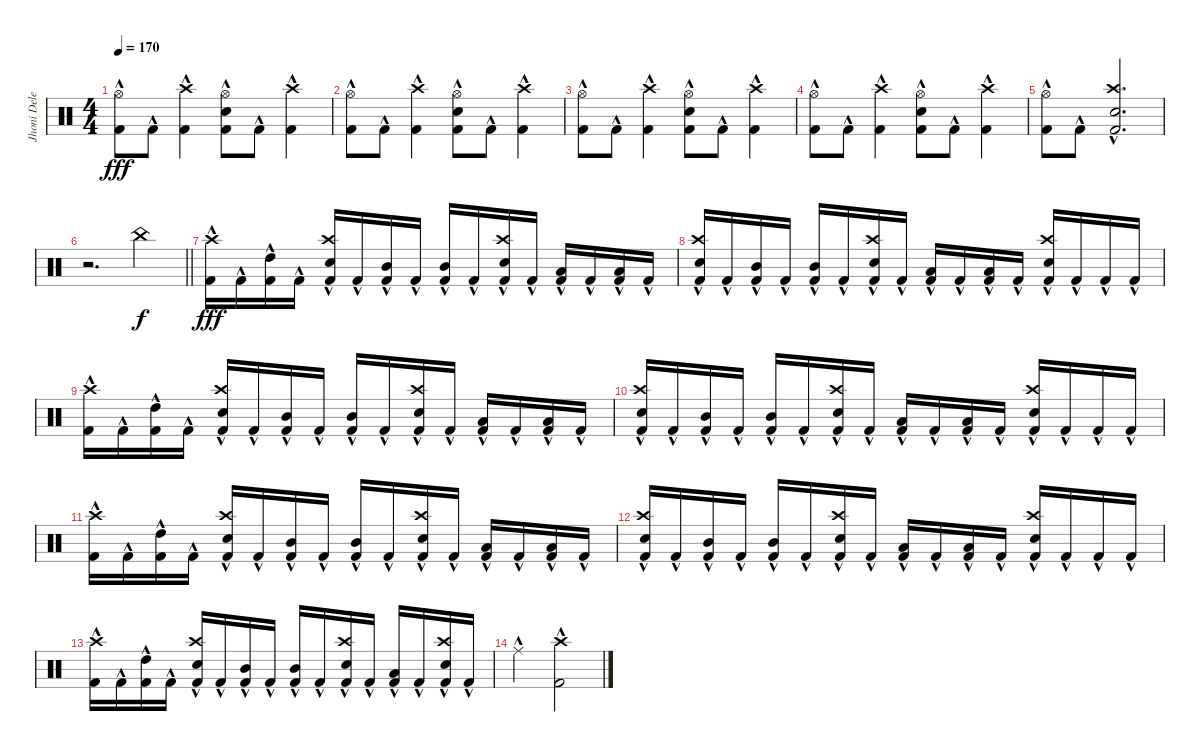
\track ("Jhoni Delenger" "Jhoni Dele") {instrument percussion}
\staff {score}
\articulation defaults
\ts (4 4)
\tempo 170
\clef neutral
\ks c
("Hi-Hat (open)" "Kick (hit) 2"{hac}).8{dy fff} "Kick (hit) 2"{hac}.8 ("Kick (hit) 2"{hac} "Crash high (hit)").4 ("Hi-Hat (open)" "Kick (hit) 2"{hac} "Snare (hit) 2").8 "Kick (hit) 2"{hac}.8 ("Kick (hit) 2"{hac} "Crash high (hit)").4 |
("Hi-Hat (open)" "Kick (hit) 2"{hac}).8 "Kick (hit) 2"{hac}.8 ("Kick (hit) 2"{hac} "Crash high (hit)").4 ("Hi-Hat (open)" "Kick (hit) 2"{hac} "Snare (hit) 2").8 "Kick (hit) 2"{hac}.8 ("Kick (hit) 2"{hac} "Crash high (hit)").4 |
("Hi-Hat (open)" "Kick (hit) 2"{hac}).8 "Kick (hit) 2"{hac}.8 ("Kick (hit) 2"{hac} "Crash high (hit)").4 ("Hi-Hat (open)" "Kick (hit) 2"{hac} "Snare (hit) 2").8 "Kick (hit) 2"{hac}.8 ("Kick (hit) 2"{hac} "Crash high (hit)").4 |
("Hi-Hat (open)" "Kick (hit) 2"{hac}).8 "Kick (hit) 2"{hac}.8 ("Kick (hit) 2"{hac} "Crash high (hit)").4 ("Hi-Hat (open)" "Kick (hit) 2"{hac} "Snare (hit) 2").8 "Kick (hit) 2"{hac}.8 ("Kick (hit) 2"{hac} "Crash high (hit)").4 |
("Hi-Hat (open)" "Kick (hit) 2"{hac}).8 "Kick (hit) 2"{hac}.8 ("Kick (hit) 2"{hac} "Crash high (hit)" "Snare (hit) 2").2{d} |
\barLineRight lightlight
r.2{d} "China (hit)".4{dy f} |
("Kick (hit) 2"{hac} "Crash high (hit)"{hac}).16{dy fff} "Kick (hit) 2"{hac}.16 ("Kick (hit) 2"{hac} "High Tom (hit)"{hac}).16 "Kick (hit) 2"{hac}.16 ("Snare (hit) 2"{hac} "Crash high (hit)"{hac} "Kick (hit) 2"{hac}).16 "Kick (hit) 2"{hac}.16 ("Mid Tom (hit)"{hac} "Kick (hit) 2"{hac}).16 "Kick (hit) 2"{hac}.16 ("Kick (hit) 2"{hac} "Mid Tom (hit)"{hac}).16 "Kick (hit) 2"{hac}.16 ("Snare (hit) 2"{hac} "Crash high (hit)"{hac} "Kick (hit) 2"{hac}).16 "Kick (hit) 2"{hac}.16 ("Low Tom (hit)"{hac} "Kick (hit) 2"{hac}).16 "Kick (hit) 2"{hac}.16 ("Kick (hit) 2"{hac} "Low Tom (hit)"{hac}).16 "Kick (hit) 2"{hac}.16 |
("Snare (hit) 2"{hac} "Crash high (hit)"{hac} "Kick (hit) 2"{hac}).16 "Kick (hit) 2"{hac}.16 ("Mid Tom (hit)"{hac} "Kick (hit) 2"{hac}).16 "Kick (hit) 2"{hac}.16 ("Kick (hit) 2"{hac} "Mid Tom (hit)"{hac}).16 "Kick (hit) 2"{hac}.16 ("Snare (hit) 2"{hac} "Crash high (hit)"{hac} "Kick (hit) 2"{hac}).16 "Kick (hit) 2"{hac}.16 ("Low Tom (hit)"{hac} "Kick (hit) 2"{hac}).16 "Kick (hit) 2"{hac}.16 ("Kick (hit) 2"{hac} "Low Tom (hit)"{hac}).16 "Kick (hit) 2"{hac}.16 ("Snare (hit) 2"{hac} "Crash high (hit)"{hac} "Kick (hit) 2"{hac}).16 "Kick (hit) 2"{hac}.16 "Kick (hit) 2"{hac}.16 "Kick (hit) 2"{hac}.16 |
("Kick (hit) 2"{hac} "Crash high (hit)"{hac}).16 "Kick (hit) 2"{hac}.16 ("Kick (hit) 2"{hac} "High Tom (hit)"{hac}).16 "Kick (hit) 2"{hac}.16 ("Snare (hit) 2"{hac} "Crash high (hit)"{hac} "Kick (hit) 2"{hac}).16 "Kick (hit) 2"{hac}.16 ("Mid Tom (hit)"{hac} "Kick (hit) 2"{hac}).16 "Kick (hit) 2"{hac}.16 ("Kick (hit) 2"{hac} "Mid Tom (hit)"{hac}).16 "Kick (hit) 2"{hac}.16 ("Snare (hit) 2"{hac} "Crash high (hit)"{hac} "Kick (hit) 2"{hac}).16 "Kick (hit) 2"{hac}.16 ("Low Tom (hit)"{hac} "Kick (hit) 2"{hac}).16 "Kick (hit) 2"{hac}.16 ("Kick (hit) 2"{hac} "Low Tom (hit)"{hac}).16 "Kick (hit) 2"{hac}.16 |
("Snare (hit) 2"{hac} "Crash high (hit)"{hac} "Kick (hit) 2"{hac}).16 "Kick (hit) 2"{hac}.16 ("Mid Tom (hit)"{hac} "Kick (hit) 2"{hac}).16 "Kick (hit) 2"{hac}.16 ("Kick (hit) 2"{hac} "Mid Tom (hit)"{hac}).16 "Kick (hit) 2"{hac}.16 ("Snare (hit) 2"{hac} "Crash high (hit)"{hac} "Kick (hit) 2"{hac}).16 "Kick (hit) 2"{hac}.16 ("Low Tom (hit)"{hac} "Kick (hit) 2"{hac}).16 "Kick (hit) 2"{hac}.16 ("Kick (hit) 2"{hac} "Low Tom (hit)"{hac}).16 "Kick (hit) 2"{hac}.16 ("Snare (hit) 2"{hac} "Crash high (hit)"{hac} "Kick (hit) 2"{hac}).16 "Kick (hit) 2"{hac}.16 "Kick (hit) 2"{hac}.16 "Kick (hit) 2"{hac}.16 |
("Kick (hit) 2"{hac} "Crash high (hit)"{hac}).16 "Kick (hit) 2"{hac}.16 ("Kick (hit) 2"{hac} "High Tom (hit)"{hac}).16 "Kick (hit) 2"{hac}.16 ("Snare (hit) 2"{hac} "Crash high (hit)"{hac} "Kick (hit) 2"{hac}).16 "Kick (hit) 2"{hac}.16 ("Mid Tom (hit)"{hac} "Kick (hit) 2"{hac}).16 "Kick (hit) 2"{hac}.16 ("Kick (hit) 2"{hac} "Mid Tom (hit)"{hac}).16 "Kick (hit) 2"{hac}.16 ("Snare (hit) 2"{hac} "Crash high (hit)"{hac} "Kick (hit) 2"{hac}).16 "Kick (hit) 2"{hac}.16 ("Low Tom (hit)"{hac} "Kick (hit) 2"{hac}).16 "Kick (hit) 2"{hac}.16 ("Kick (hit) 2"{hac} "Low Tom (hit)"{hac}).16 "Kick (hit) 2"{hac}.16 |
("Snare (hit) 2"{hac} "Crash high (hit)"{hac} "Kick (hit) 2"{hac}).16 "Kick (hit) 2"{hac}.16 ("Mid Tom (hit)"{hac} "Kick (hit) 2"{hac}).16 "Kick (hit) 2"{hac}.16 ("Kick (hit) 2"{hac} "Mid Tom (hit)"{hac}).16 "Kick (hit) 2"{hac}.16 ("Snare (hit) 2"{hac} "Crash high (hit)"{hac} "Kick (hit) 2"{hac}).16 "Kick (hit) 2"{hac}.16 ("Low Tom (hit)"{hac} "Kick (hit) 2"{hac}).16 "Kick (hit) 2"{hac}.16 ("Kick (hit) 2"{hac} "Low Tom (hit)"{hac}).16 "Kick (hit) 2"{hac}.16 ("Snare (hit) 2"{hac} "Crash high (hit)"{hac} "Kick (hit) 2"{hac}).16 "Kick (hit) 2"{hac}.16 "Kick (hit) 2"{hac}.16 "Kick (hit) 2"{hac}.16 |
("Kick (hit) 2"{hac} "Crash high (hit)"{hac}).16 "Kick (hit) 2"{hac}.16 ("Kick (hit) 2"{hac} "High Tom (hit)"{hac}).16 "Kick (hit) 2"{hac}.16 ("Snare (hit) 2"{hac} "Crash high (hit)"{hac} "Kick (hit) 2"{hac}).16 "Kick (hit) 2"{hac}.16 ("Mid Tom (hit)"{hac} "Kick (hit) 2"{hac}).16 "Kick (hit) 2"{hac}.16 ("Kick (hit) 2"{hac} "Mid Tom (hit)"{hac}).16 "Kick (hit) 2"{hac}.16 ("Snare (hit) 2"{hac} "Crash high (hit)"{hac} "Kick (hit) 2"{hac}).16 "Kick (hit) 2"{hac}.16 ("Low Tom (hit)"{hac} "Kick (hit) 2"{hac}).16 "Kick (hit) 2"{hac}.16 ("Snare (hit) 2"{hac} "Crash high (hit)"{hac} "Kick (hit) 2"{hac}).16 "Kick (hit) 2"{hac}.16 |
"Ride (middle)"{hac}.2 ("Crash high (hit)"{hac} "Kick (hit) 2"{hac}).2
